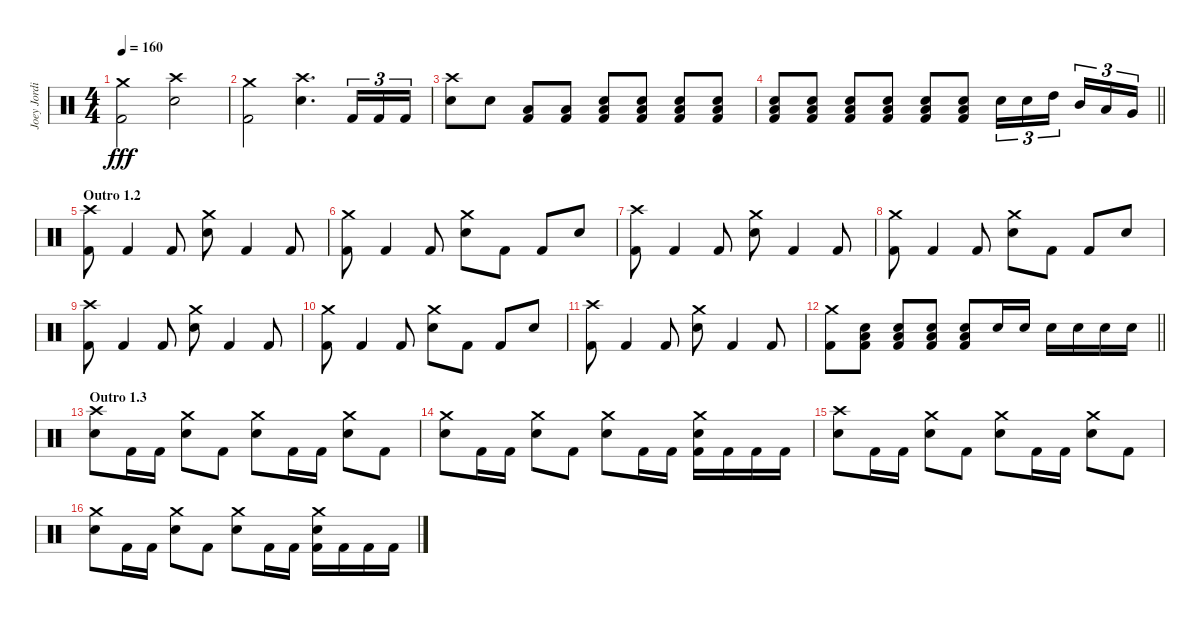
\track ("Joey Jordison" "Joey Jordi") {instrument percussion}
\staff {score}
\articulation defaults
\ts (4 4)
\tempo 160
\clef neutral
\ks c
("Crash medium (hit)" "Kick (hit) 2").2{dy fff} ("Crash high (hit)" "Electric Snare (hit)").2 |
("Crash medium (hit)" "Kick (hit) 2").2 ("Crash high (hit)" "Electric Snare (hit)").4{d} "Kick (hit) 2".16{tu (3 2)} "Kick (hit) 2".16{tu (3 2)} "Kick (hit) 2".16{tu (3 2)} |
("Crash high (hit)" "Electric Snare (hit)").8 "Electric Snare (hit)".8 ("Low Floor Tom (hit)" "Kick (hit) 2").8 ("Low Floor Tom (hit)" "Kick (hit) 2").8 ("Electric Snare (hit)" "Low Floor Tom (hit)" "Kick (hit) 2").8 ("Electric Snare (hit)" "Low Floor Tom (hit)" "Kick (hit) 2").8 ("Electric Snare (hit)" "Low Floor Tom (hit)" "Kick (hit) 2").8 ("Electric Snare (hit)" "Low Floor Tom (hit)" "Kick (hit) 2").8 |
\barLineRight lightlight
("Electric Snare (hit)" "Low Floor Tom (hit)" "Kick (hit) 2").8 ("Electric Snare (hit)" "Low Floor Tom (hit)" "Kick (hit) 2").8 ("Electric Snare (hit)" "Low Floor Tom (hit)" "Kick (hit) 2").8 ("Electric Snare (hit)" "Low Floor Tom (hit)" "Kick (hit) 2").8 ("Electric Snare (hit)" "Low Floor Tom (hit)" "Kick (hit) 2").8 ("Electric Snare (hit)" "Low Floor Tom (hit)" "Kick (hit) 2").8 "Electric Snare (hit)".16{tu (3 2)} "Electric Snare (hit)".16{tu (3 2)} "High Tom (hit)".16{tu (3 2) beam splitsecondary} "Mid Tom (hit)".16{tu (3 2)} "Low Tom (hit)".16{tu (3 2)} "Very Low Tom (hit)".16{tu (3 2)} |
\section ("" "Outro 1.2")
("Crash high (hit)" "Kick (hit) 2").8 "Kick (hit) 2".4 "Kick (hit) 2".8 ("Crash medium (hit)" "Electric Snare (hit)").8 "Kick (hit) 2".4 "Kick (hit) 2".8 |
("Crash medium (hit)" "Kick (hit) 2").8 "Kick (hit) 2".4 "Kick (hit) 2".8 ("Crash medium (hit)" "Electric Snare (hit)").8 "Kick (hit) 2".8 "Kick (hit) 2".8 "Electric Snare (hit)".8 |
("Crash high (hit)" "Kick (hit) 2").8 "Kick (hit) 2".4 "Kick (hit) 2".8 ("Crash medium (hit)" "Electric Snare (hit)").8 "Kick (hit) 2".4 "Kick (hit) 2".8 |
("Crash medium (hit)" "Kick (hit) 2").8 "Kick (hit) 2".4 "Kick (hit) 2".8 ("Crash medium (hit)" "Electric Snare (hit)").8 "Kick (hit) 2".8 "Kick (hit) 2".8 "Electric Snare (hit)".8 |
("Crash high (hit)" "Kick (hit) 2").8 "Kick (hit) 2".4 "Kick (hit) 2".8 ("Crash medium (hit)" "Electric Snare (hit)").8 "Kick (hit) 2".4 "Kick (hit) 2".8 |
("Crash medium (hit)" "Kick (hit) 2").8 "Kick (hit) 2".4 "Kick (hit) 2".8 ("Crash medium (hit)" "Electric Snare (hit)").8 "Kick (hit) 2".8 "Kick (hit) 2".8 "Electric Snare (hit)".8 |
("Crash high (hit)" "Kick (hit) 2").8 "Kick (hit) 2".4 "Kick (hit) 2".8 ("Crash medium (hit)" "Electric Snare (hit)").8 "Kick (hit) 2".4 "Kick (hit) 2".8 |
\barLineRight lightlight
("Crash medium (hit)" "Kick (hit) 2").8 ("Electric Snare (hit)" "Low Floor Tom (hit)" "Kick (hit) 2").8 ("Electric Snare (hit)" "Low Floor Tom (hit)" "Kick (hit) 2").8 ("Electric Snare (hit)" "Low Floor Tom (hit)" "Kick (hit) 2").8 ("Electric Snare (hit)" "Low Floor Tom (hit)" "Kick (hit) 2").8 "Electric Snare (hit)".16 "Electric Snare (hit)".16 "Electric Snare (hit)".16 "Electric Snare (hit)".16 "Electric Snare (hit)".16 "Electric Snare (hit)".16 |
\section ("" "Outro 1.3")
("Crash high (hit)" "Electric Snare (hit)").8 "Kick (hit) 2".16 "Kick (hit) 2".16 ("Crash medium (hit)" "Electric Snare (hit)").8 "Kick (hit) 2".8 ("Crash medium (hit)" "Electric Snare (hit)").8 "Kick (hit) 2".16 "Kick (hit) 2".16 ("Crash medium (hit)" "Electric Snare (hit)").8 "Kick (hit) 2".8 |
("Crash medium (hit)" "Electric Snare (hit)").8 "Kick (hit) 2".16 "Kick (hit) 2".16 ("Crash medium (hit)" "Electric Snare (hit)").8 "Kick (hit) 2".8 ("Crash medium (hit)" "Electric Snare (hit)").8 "Kick (hit) 2".16 "Kick (hit) 2".16 ("Crash medium (hit)" "Electric Snare (hit)" "Kick (hit) 2").16 "Kick (hit) 2".16 "Kick (hit) 2".16 "Kick (hit) 2".16 |
("Crash high (hit)" "Electric Snare (hit)").8 "Kick (hit) 2".16 "Kick (hit) 2".16 ("Crash medium (hit)" "Electric Snare (hit)").8 "Kick (hit) 2".8 ("Crash medium (hit)" "Electric Snare (hit)").8 "Kick (hit) 2".16 "Kick (hit) 2".16 ("Crash medium (hit)" "Electric Snare (hit)").8 "Kick (hit) 2".8 |
("Crash medium (hit)" "Electric Snare (hit)").8 "Kick (hit) 2".16 "Kick (hit) 2".16 ("Crash medium (hit)" "Electric Snare (hit)").8 "Kick (hit) 2".8 ("Crash medium (hit)" "Electric Snare (hit)").8 "Kick (hit) 2".16 "Kick (hit) 2".16 ("Crash medium (hit)" "Electric Snare (hit)" "Kick (hit) 2").16 "Kick (hit) 2".16 "Kick (hit) 2".16 "Kick (hit) 2".16
